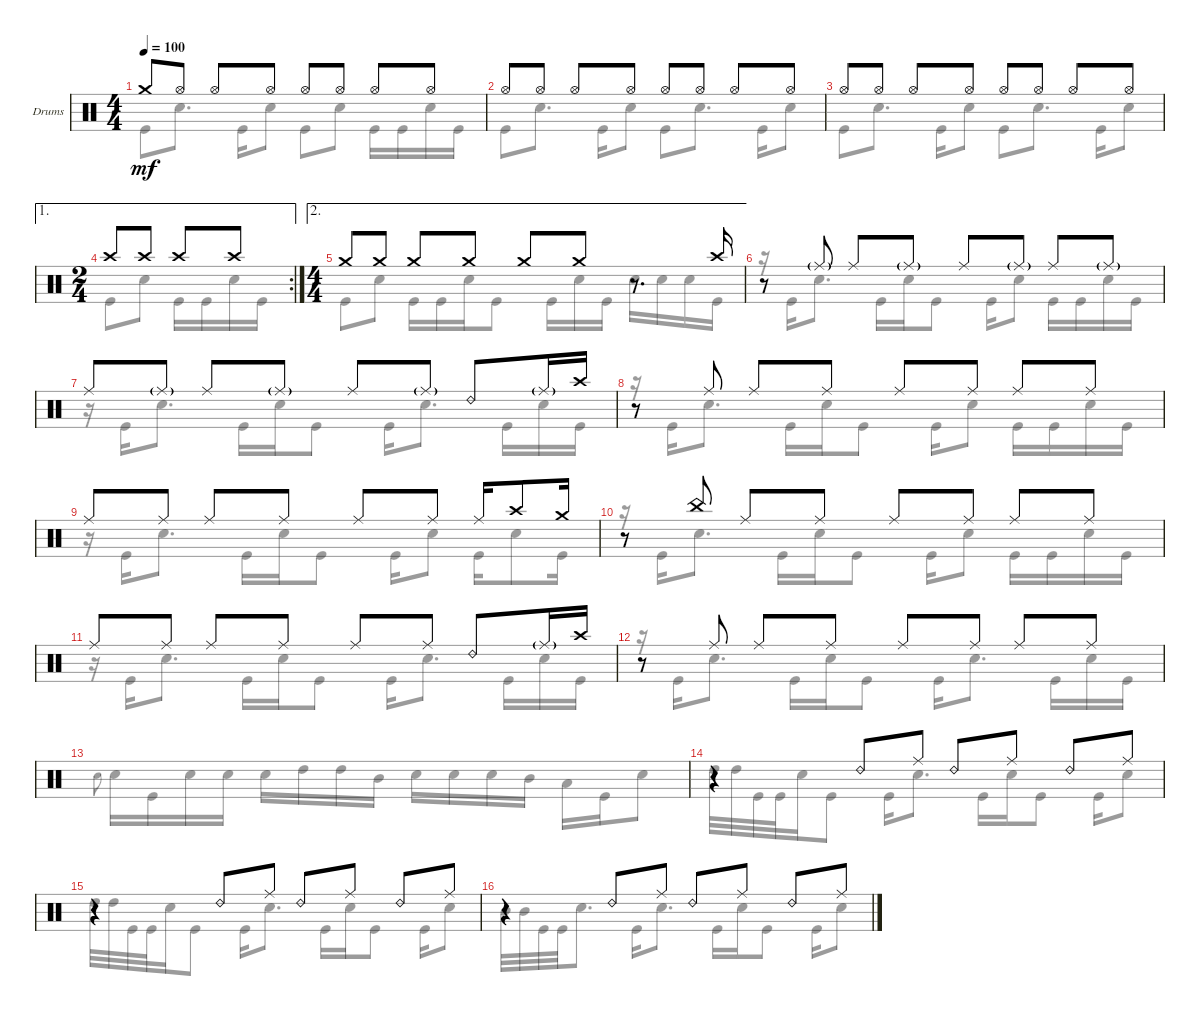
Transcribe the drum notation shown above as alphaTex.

\defaultSystemsLayout 4
\bracketExtendMode groupsimilarinstruments
\firstSystemTrackNameOrientation horizontal
\otherSystemsTrackNameOrientation horizontal
\track ("Drumkit" "Drums") {instrument percussion}
\staff {score}
\articulation defaults
\voice
\ts (4 4)
\tempo 100
\clef neutral
\ks c "Crash medium (hit)".8{dy mf} "Hi-Hat (open)".8 "Hi-Hat (open)".8 "Hi-Hat (open)".8 "Hi-Hat (open)".8 "Hi-Hat (open)".8 "Hi-Hat (open)".8 "Hi-Hat (open)".8
|
"Hi-Hat (open)".8 "Hi-Hat (open)".8 "Hi-Hat (open)".8 "Hi-Hat (open)".8 "Hi-Hat (open)".8 "Hi-Hat (open)".8 "Hi-Hat (open)".8 "Hi-Hat (open)".8 |
"Hi-Hat (open)".8 "Hi-Hat (open)".8 "Hi-Hat (open)".8 "Hi-Hat (open)".8 "Hi-Hat (open)".8 "Hi-Hat (open)".8 "Hi-Hat (open)".8 "Hi-Hat (open)".8 |
\ae 1
\rc 2
\ts (2 4)
"Crash high (hit)".8 "Crash high (hit)".8 "Crash high (hit)".8 "Crash high (hit)".8 |
\ae 2
\ts (4 4)
"Crash medium (hit)".8 "Crash medium (hit)".8 "Crash medium (hit)".8 "Crash medium (hit)".8 "Crash medium (hit)".8 "Crash medium (hit)".8 r.8{d} "Crash high (hit)".16 |
r.8 "Ride (middle)"{g}.8 "Ride (middle)".8 "Ride (middle)"{g}.8 "Ride (middle)".8 "Ride (middle)"{g}.8 "Ride (middle)".8 "Ride (middle)"{g}.8 |
"Ride (middle)".8 "Ride (middle)"{g}.8 "Ride (middle)".8 "Ride (middle)"{g}.8 "Ride (middle)".8 "Ride (middle)"{g}.8 "Ride (bell) 2".8 "Ride (middle)"{g}.16 "Crash high (hit)".16 |
r.8 "Ride (middle)".8 "Ride (middle)".8 "Ride (middle)".8 "Ride (middle)".8 "Ride (middle)".8 "Ride (middle)".8 "Ride (middle)".8 |
"Ride (middle)".8 "Ride (middle)".8 "Ride (middle)".8 "Ride (middle)".8 "Ride (middle)".8 "Ride (middle)".8 "Ride (middle)".16 "Crash high (hit)".8 "Crash medium (hit)".16 |
r.8 "China (hit)".8 "Ride (middle)".8 "Ride (middle)".8 "Ride (middle)".8 "Ride (middle)".8 "Ride (middle)".8 "Ride (middle)".8 |
"Ride (middle)".8 "Ride (middle)".8 "Ride (middle)".8 "Ride (middle)".8 "Ride (middle)".8 "Ride (middle)".8 "Ride (bell) 2".8 "Ride (middle)"{g}.16 "Crash high (hit)".16 |
r.8 "Ride (middle)".8 "Ride (middle)".8 "Ride (middle)".8 "Ride (middle)".8 "Ride (middle)".8 "Ride (middle)".8 "Ride (middle)".8 |
|
r.4 "Ride (bell) 2".8 "Ride (middle)".8 "Ride (bell) 2".8 "Ride (middle)".8 "Ride (bell) 2".8 "Ride (middle)".8 |
r.4 "Ride (bell) 2".8 "Ride (middle)".8 "Ride (bell) 2".8 "Ride (middle)".8 "Ride (bell) 2".8 "Ride (middle)".8 |
r.4 "Ride (bell) 2".8 "Ride (middle)".8 "Ride (bell) 2".8 "Ride (middle)".8 "Ride (bell) 2".8 "Ride (middle)".8
\voice
\clef neutral
\ottava regular
\simile none
\ks c "Kick (hit)".8{dy mf} "Snare (hit) 2".8{d} "Kick (hit)".16 "Snare (hit) 2".8 "Kick (hit)".8 "Snare (hit) 2".8 "Kick (hit)".16 "Kick (hit)".16 "Snare (hit) 2".16 "Kick (hit)".16
|
"Kick (hit)".8 "Snare (hit) 2".8{d} "Kick (hit)".16 "Snare (hit) 2".8 "Kick (hit)".8 "Snare (hit) 2".8{d} "Kick (hit)".16 "Snare (hit) 2".8 |
"Kick (hit)".8 "Snare (hit) 2".8{d} "Kick (hit)".16 "Snare (hit) 2".8 "Kick (hit)".8 "Snare (hit) 2".8{d} "Kick (hit)".16 "Snare (hit) 2".8 |
"Kick (hit)".8 "Snare (hit) 2".8 "Kick (hit)".16 "Kick (hit)".16 "Snare (hit) 2".16 "Kick (hit)".16 |
"Kick (hit)".8 "Snare (hit) 2".8 "Kick (hit)".16 "Kick (hit)".16 "Snare (hit) 2".16 "Kick (hit)".8 "Kick (hit)".16 "Snare (hit) 2".16 "Kick (hit)".16 "Snare (hit) 2".16 "Snare (hit) 2".16 "Snare (hit) 2".16 "Kick (hit)".16 |
r.16 "Kick (hit)".16 "Snare (hit) 2".8{d} "Kick (hit)".16 "Snare (hit) 2".16 "Kick (hit)".8 "Kick (hit)".16 "Snare (hit) 2".8 "Kick (hit)".16 "Kick (hit)".16 "Snare (hit) 2".16 "Kick (hit)".16 |
r.16 "Kick (hit)".16 "Snare (hit) 2".8{d} "Kick (hit)".16 "Snare (hit) 2".16 "Kick (hit)".8 "Kick (hit)".16 "Snare (hit) 2".8{d} "Kick (hit)".16 "Snare (hit) 2".16 "Kick (hit)".16 |
r.16 "Kick (hit)".16 "Snare (hit) 2".8{d} "Kick (hit)".16 "Snare (hit) 2".16 "Kick (hit)".8 "Kick (hit)".16 "Snare (hit) 2".8 "Kick (hit)".16 "Kick (hit)".16 "Snare (hit) 2".16 "Kick (hit)".16 |
r.16 "Kick (hit)".16 "Snare (hit) 2".8{d} "Kick (hit)".16 "Snare (hit) 2".16 "Kick (hit)".8 "Kick (hit)".16 "Snare (hit) 2".8 "Kick (hit)".16 "Snare (hit) 2".8 "Kick (hit)".16 |
r.16 "Kick (hit)".16 "Snare (hit) 2".8{d} "Kick (hit)".16 "Snare (hit) 2".16 "Kick (hit)".8 "Kick (hit)".16 "Snare (hit) 2".8 "Kick (hit)".16 "Kick (hit)".16 "Snare (hit) 2".16 "Kick (hit)".16 |
r.16 "Kick (hit)".16 "Snare (hit) 2".8{d} "Kick (hit)".16 "Snare (hit) 2".16 "Kick (hit)".8 "Kick (hit)".16 "Snare (hit) 2".8{d} "Kick (hit)".16 "Snare (hit) 2".16 "Kick (hit)".16 |
r.16 "Kick (hit)".16 "Snare (hit) 2".8{d} "Kick (hit)".16 "Snare (hit) 2".16 "Kick (hit)".8 "Kick (hit)".16 "Snare (hit) 2".8{d} "Kick (hit)".16 "Snare (hit) 2".16 "Kick (hit)".16 |
"Snare (hit) 2".8{gr onbeat} "Snare (hit) 2".16 "Kick (hit)".16 "Snare (hit) 2".16 "Snare (hit) 2".16 "Snare (hit) 2".16 "High Tom (hit)".16 "High Tom (hit)".16 "Mid Tom (hit)".16 "Snare (hit) 2".16 "Snare (hit) 2".16 "Snare (hit) 2".16 "Mid Tom (hit)".16 "Low Tom (hit)".16 "Kick (hit)".16 "Snare (hit) 2".8 |
"High Tom (hit)".32 "High Tom (hit)".32 "Kick (hit)".32 "Kick (hit)".32 "Snare (hit) 2".16 "Kick (hit)".8 "Kick (hit)".16 "Snare (hit) 2".8{d} "Kick (hit)".16 "Snare (hit) 2".16 "Kick (hit)".8 "Kick (hit)".16 "Snare (hit) 2".8 |
"High Tom (hit)".32 "High Tom (hit)".32 "Kick (hit)".32 "Kick (hit)".32 "Snare (hit) 2".16 "Kick (hit)".8 "Kick (hit)".16 "Snare (hit) 2".8{d} "Kick (hit)".16 "Snare (hit) 2".16 "Kick (hit)".8 "Kick (hit)".16 "Snare (hit) 2".8 |
"Mid Tom (hit)".32 "Mid Tom (hit)".32 "Kick (hit)".32 "Kick (hit)".32 "Snare (hit) 2".8{d} "Kick (hit)".16 "Snare (hit) 2".8{d} "Kick (hit)".16 "Snare (hit) 2".16 "Kick (hit)".8 "Kick (hit)".16 "Snare (hit) 2".8
